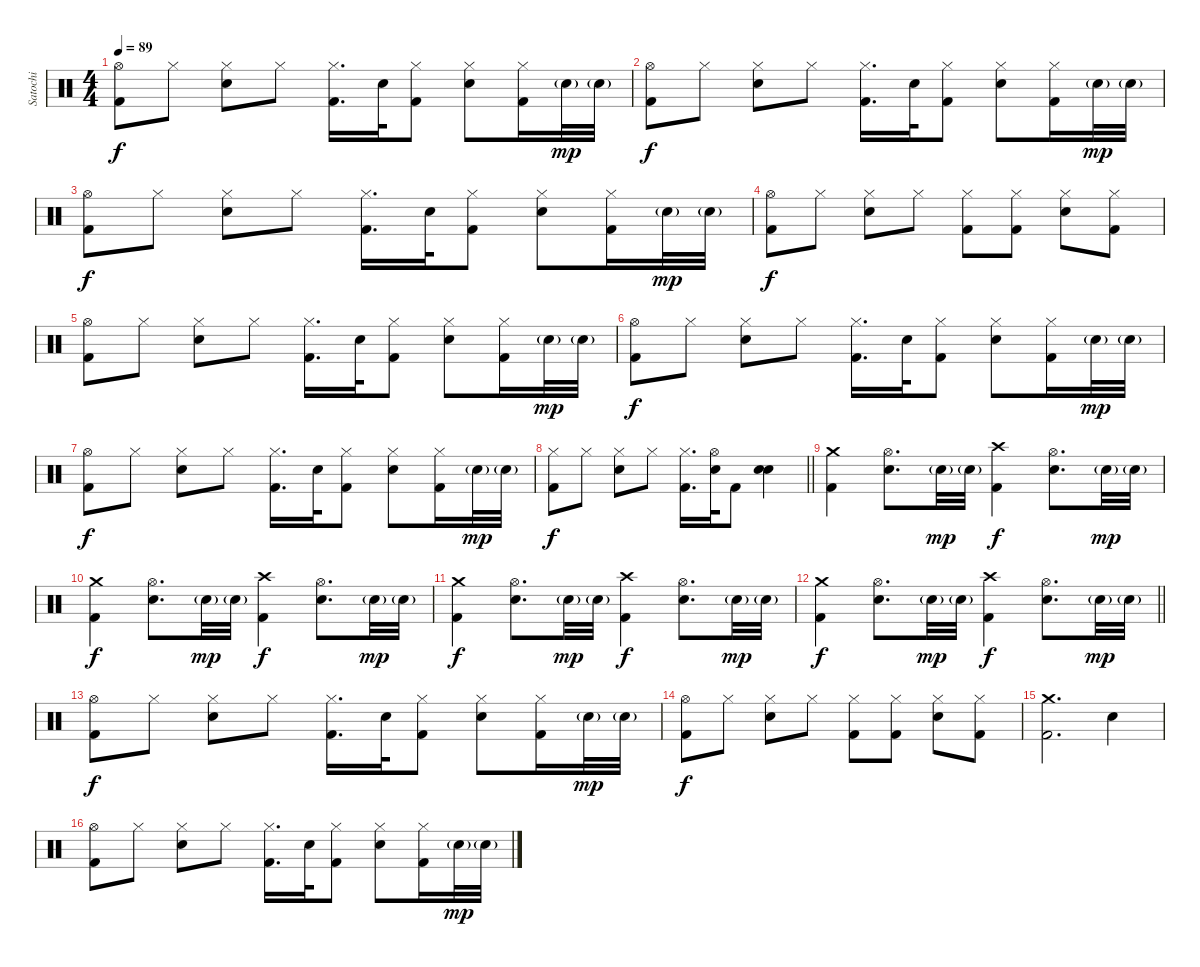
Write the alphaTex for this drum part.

\track ("Satochi" "Satochi") {instrument percussion}
\staff {score}
\articulation defaults
\ts (4 4)
\tempo 89
\clef neutral
\ks c
("Hi-Hat (open)" "Kick (hit) 2").8{dy f} "Hi-Hat (closed)".8 ("Hi-Hat (closed)" "Electric Snare (hit)").8 "Hi-Hat (closed)".8 ("Hi-Hat (closed)" "Kick (hit) 2").16{d} "Electric Snare (hit)".32 ("Hi-Hat (closed)" "Kick (hit) 2").8 ("Hi-Hat (closed)" "Electric Snare (hit)").8 ("Hi-Hat (closed)" "Kick (hit) 2").16 "Electric Snare (hit)"{g}.32{dy mp} "Electric Snare (hit)"{g}.32 |
("Hi-Hat (open)" "Kick (hit) 2").8{dy f} "Hi-Hat (closed)".8 ("Hi-Hat (closed)" "Electric Snare (hit)").8 "Hi-Hat (closed)".8 ("Hi-Hat (closed)" "Kick (hit) 2").16{d} "Electric Snare (hit)".32 ("Hi-Hat (closed)" "Kick (hit) 2").8 ("Hi-Hat (closed)" "Electric Snare (hit)").8 ("Hi-Hat (closed)" "Kick (hit) 2").16 "Electric Snare (hit)"{g}.32{dy mp} "Electric Snare (hit)"{g}.32 |
("Hi-Hat (open)" "Kick (hit) 2").8{dy f} "Hi-Hat (closed)".8 ("Hi-Hat (closed)" "Electric Snare (hit)").8 "Hi-Hat (closed)".8 ("Hi-Hat (closed)" "Kick (hit) 2").16{d} "Electric Snare (hit)".32 ("Hi-Hat (closed)" "Kick (hit) 2").8 ("Hi-Hat (closed)" "Electric Snare (hit)").8 ("Hi-Hat (closed)" "Kick (hit) 2").16 "Electric Snare (hit)"{g}.32{dy mp} "Electric Snare (hit)"{g}.32 |
("Hi-Hat (open)" "Kick (hit) 2").8{dy f} "Hi-Hat (closed)".8 ("Hi-Hat (closed)" "Electric Snare (hit)").8 "Hi-Hat (closed)".8 ("Hi-Hat (closed)" "Kick (hit) 2").8 ("Hi-Hat (closed)" "Kick (hit) 2").8 ("Hi-Hat (closed)" "Electric Snare (hit)").8 ("Hi-Hat (closed)" "Kick (hit) 2").8 |
("Hi-Hat (open)" "Kick (hit) 2").8 "Hi-Hat (closed)".8 ("Hi-Hat (closed)" "Electric Snare (hit)").8 "Hi-Hat (closed)".8 ("Hi-Hat (closed)" "Kick (hit) 2").16{d} "Electric Snare (hit)".32 ("Hi-Hat (closed)" "Kick (hit) 2").8 ("Hi-Hat (closed)" "Electric Snare (hit)").8 ("Hi-Hat (closed)" "Kick (hit) 2").16 "Electric Snare (hit)"{g}.32{dy mp} "Electric Snare (hit)"{g}.32 |
("Hi-Hat (open)" "Kick (hit) 2").8{dy f} "Hi-Hat (closed)".8 ("Hi-Hat (closed)" "Electric Snare (hit)").8 "Hi-Hat (closed)".8 ("Hi-Hat (closed)" "Kick (hit) 2").16{d} "Electric Snare (hit)".32 ("Hi-Hat (closed)" "Kick (hit) 2").8 ("Hi-Hat (closed)" "Electric Snare (hit)").8 ("Hi-Hat (closed)" "Kick (hit) 2").16 "Electric Snare (hit)"{g}.32{dy mp} "Electric Snare (hit)"{g}.32 |
("Hi-Hat (open)" "Kick (hit) 2").8{dy f} "Hi-Hat (closed)".8 ("Hi-Hat (closed)" "Electric Snare (hit)").8 "Hi-Hat (closed)".8 ("Hi-Hat (closed)" "Kick (hit) 2").16{d} "Electric Snare (hit)".32 ("Hi-Hat (closed)" "Kick (hit) 2").8 ("Hi-Hat (closed)" "Electric Snare (hit)").8 ("Hi-Hat (closed)" "Kick (hit) 2").16 "Electric Snare (hit)"{g}.32{dy mp} "Electric Snare (hit)"{g}.32 |
\barLineRight lightlight
("Hi-Hat (closed)" "Kick (hit) 2").8{dy f} "Hi-Hat (closed)".8 ("Hi-Hat (closed)" "Electric Snare (hit)").8 "Hi-Hat (closed)".8 ("Hi-Hat (closed)" "Kick (hit) 2").16{d} ("Hi-Hat (open)" "Electric Snare (hit)").32 "Kick (hit) 2".8 ("Electric Snare (hit)" "Electric Snare (hit)").4 |
("Crash medium (hit)" "Kick (hit) 2").4 ("Hi-Hat (open)" "Electric Snare (hit)").8{d} "Electric Snare (hit)"{g}.32{dy mp} "Electric Snare (hit)"{g}.32 ("Crash high (hit)" "Kick (hit) 2").4{dy f} ("Hi-Hat (open)" "Electric Snare (hit)").8{d} "Electric Snare (hit)"{g}.32{dy mp} "Electric Snare (hit)"{g}.32 |
("Crash medium (hit)" "Kick (hit) 2").4{dy f} ("Hi-Hat (open)" "Electric Snare (hit)").8{d} "Electric Snare (hit)"{g}.32{dy mp} "Electric Snare (hit)"{g}.32 ("Crash high (hit)" "Kick (hit) 2").4{dy f} ("Hi-Hat (open)" "Electric Snare (hit)").8{d} "Electric Snare (hit)"{g}.32{dy mp} "Electric Snare (hit)"{g}.32 |
("Crash medium (hit)" "Kick (hit) 2").4{dy f} ("Hi-Hat (open)" "Electric Snare (hit)").8{d} "Electric Snare (hit)"{g}.32{dy mp} "Electric Snare (hit)"{g}.32 ("Crash high (hit)" "Kick (hit) 2").4{dy f} ("Hi-Hat (open)" "Electric Snare (hit)").8{d} "Electric Snare (hit)"{g}.32{dy mp} "Electric Snare (hit)"{g}.32 |
\barLineRight lightlight
("Crash medium (hit)" "Kick (hit) 2").4{dy f} ("Hi-Hat (open)" "Electric Snare (hit)").8{d} "Electric Snare (hit)"{g}.32{dy mp} "Electric Snare (hit)"{g}.32 ("Crash high (hit)" "Kick (hit) 2").4{dy f} ("Hi-Hat (open)" "Electric Snare (hit)").8{d} "Electric Snare (hit)"{g}.32{dy mp} "Electric Snare (hit)"{g}.32 |
("Hi-Hat (open)" "Kick (hit) 2").8{dy f} "Hi-Hat (closed)".8 ("Hi-Hat (closed)" "Electric Snare (hit)").8 "Hi-Hat (closed)".8 ("Hi-Hat (closed)" "Kick (hit) 2").16{d} "Electric Snare (hit)".32 ("Hi-Hat (closed)" "Kick (hit) 2").8 ("Hi-Hat (closed)" "Electric Snare (hit)").8 ("Hi-Hat (closed)" "Kick (hit) 2").16 "Electric Snare (hit)"{g}.32{dy mp} "Electric Snare (hit)"{g}.32 |
("Hi-Hat (open)" "Kick (hit) 2").8{dy f} "Hi-Hat (closed)".8 ("Hi-Hat (closed)" "Electric Snare (hit)").8 "Hi-Hat (closed)".8 ("Hi-Hat (closed)" "Kick (hit) 2").8 ("Hi-Hat (closed)" "Kick (hit) 2").8 ("Hi-Hat (closed)" "Electric Snare (hit)").8 ("Hi-Hat (closed)" "Kick (hit) 2").8 |
("Crash medium (hit)" "Kick (hit) 2").2{d} "Electric Snare (hit)".4 |
("Hi-Hat (open)" "Kick (hit) 2").8 "Hi-Hat (closed)".8 ("Hi-Hat (closed)" "Electric Snare (hit)").8 "Hi-Hat (closed)".8 ("Hi-Hat (closed)" "Kick (hit) 2").16{d} "Electric Snare (hit)".32 ("Hi-Hat (closed)" "Kick (hit) 2").8 ("Hi-Hat (closed)" "Electric Snare (hit)").8 ("Hi-Hat (closed)" "Kick (hit) 2").16 "Electric Snare (hit)"{g}.32{dy mp} "Electric Snare (hit)"{g}.32
